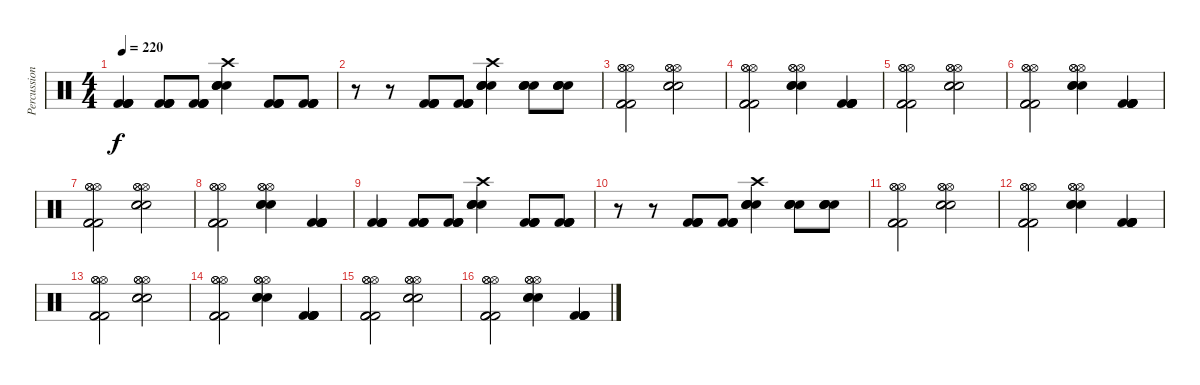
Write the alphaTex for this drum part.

\track ("Percussion" "Percussion") {instrument percussion}
\staff {score}
\articulation defaults
\ts (4 4)
\tempo 220
\clef neutral
\ks c
("Kick (hit) 2" "Kick (hit) 2" "Kick (hit) 2" "Kick (hit) 2").4{dy f} ("Kick (hit) 2" "Kick (hit) 2" "Kick (hit) 2" "Kick (hit) 2").8 ("Kick (hit) 2" "Kick (hit) 2" "Kick (hit) 2" "Kick (hit) 2").8 ("Crash high (hit)" "Snare (hit) 2" "Snare (hit) 2" "Snare (hit) 2" "Snare (hit) 2").4 ("Kick (hit) 2" "Kick (hit) 2" "Kick (hit) 2" "Kick (hit) 2").8 ("Kick (hit) 2" "Kick (hit) 2" "Kick (hit) 2" "Kick (hit) 2").8 |
r.8 r.8 ("Kick (hit) 2" "Kick (hit) 2" "Kick (hit) 2" "Kick (hit) 2").8 ("Kick (hit) 2" "Kick (hit) 2" "Kick (hit) 2" "Kick (hit) 2").8 ("Crash high (hit)" "Snare (hit) 2" "Snare (hit) 2" "Snare (hit) 2" "Snare (hit) 2").4 ("Snare (hit) 2" "Snare (hit) 2" "Snare (hit) 2" "Snare (hit) 2").8 ("Snare (hit) 2" "Snare (hit) 2" "Snare (hit) 2" "Snare (hit) 2").8 |
("Hi-Hat (open)" "Hi-Hat (open)" "Hi-Hat (open)" "Kick (hit) 2" "Kick (hit) 2" "Kick (hit) 2").2 ("Hi-Hat (open)" "Hi-Hat (open)" "Hi-Hat (open)" "Snare (hit) 2" "Snare (hit) 2" "Snare (hit) 2").2 |
("Hi-Hat (open)" "Hi-Hat (open)" "Hi-Hat (open)" "Kick (hit) 2" "Kick (hit) 2" "Kick (hit) 2").2 ("Hi-Hat (open)" "Hi-Hat (open)" "Hi-Hat (open)" "Snare (hit) 2" "Snare (hit) 2" "Snare (hit) 2").4 ("Kick (hit) 2" "Kick (hit) 2" "Kick (hit) 2" "Kick (hit) 2" "Kick (hit) 2").4 |
("Hi-Hat (open)" "Hi-Hat (open)" "Hi-Hat (open)" "Kick (hit) 2" "Kick (hit) 2" "Kick (hit) 2").2 ("Hi-Hat (open)" "Hi-Hat (open)" "Hi-Hat (open)" "Snare (hit) 2" "Snare (hit) 2" "Snare (hit) 2").2 |
("Hi-Hat (open)" "Hi-Hat (open)" "Hi-Hat (open)" "Kick (hit) 2" "Kick (hit) 2" "Kick (hit) 2").2 ("Hi-Hat (open)" "Hi-Hat (open)" "Hi-Hat (open)" "Snare (hit) 2" "Snare (hit) 2" "Snare (hit) 2").4 ("Kick (hit) 2" "Kick (hit) 2" "Kick (hit) 2" "Kick (hit) 2" "Kick (hit) 2").4 |
("Hi-Hat (open)" "Hi-Hat (open)" "Hi-Hat (open)" "Kick (hit) 2" "Kick (hit) 2" "Kick (hit) 2").2 ("Hi-Hat (open)" "Hi-Hat (open)" "Hi-Hat (open)" "Snare (hit) 2" "Snare (hit) 2" "Snare (hit) 2").2 |
("Hi-Hat (open)" "Hi-Hat (open)" "Hi-Hat (open)" "Kick (hit) 2" "Kick (hit) 2" "Kick (hit) 2").2 ("Hi-Hat (open)" "Hi-Hat (open)" "Hi-Hat (open)" "Snare (hit) 2" "Snare (hit) 2" "Snare (hit) 2").4 ("Kick (hit) 2" "Kick (hit) 2" "Kick (hit) 2" "Kick (hit) 2" "Kick (hit) 2").4 |
("Kick (hit) 2" "Kick (hit) 2" "Kick (hit) 2" "Kick (hit) 2").4 ("Kick (hit) 2" "Kick (hit) 2" "Kick (hit) 2" "Kick (hit) 2").8 ("Kick (hit) 2" "Kick (hit) 2" "Kick (hit) 2" "Kick (hit) 2").8 ("Crash high (hit)" "Snare (hit) 2" "Snare (hit) 2" "Snare (hit) 2" "Snare (hit) 2").4 ("Kick (hit) 2" "Kick (hit) 2" "Kick (hit) 2" "Kick (hit) 2").8 ("Kick (hit) 2" "Kick (hit) 2" "Kick (hit) 2" "Kick (hit) 2").8 |
r.8 r.8 ("Kick (hit) 2" "Kick (hit) 2" "Kick (hit) 2" "Kick (hit) 2").8 ("Kick (hit) 2" "Kick (hit) 2" "Kick (hit) 2" "Kick (hit) 2").8 ("Crash high (hit)" "Snare (hit) 2" "Snare (hit) 2" "Snare (hit) 2" "Snare (hit) 2").4 ("Snare (hit) 2" "Snare (hit) 2" "Snare (hit) 2" "Snare (hit) 2").8 ("Snare (hit) 2" "Snare (hit) 2" "Snare (hit) 2" "Snare (hit) 2").8 |
("Hi-Hat (open)" "Hi-Hat (open)" "Hi-Hat (open)" "Kick (hit) 2" "Kick (hit) 2" "Kick (hit) 2").2 ("Hi-Hat (open)" "Hi-Hat (open)" "Hi-Hat (open)" "Snare (hit) 2" "Snare (hit) 2" "Snare (hit) 2").2 |
("Hi-Hat (open)" "Hi-Hat (open)" "Hi-Hat (open)" "Kick (hit) 2" "Kick (hit) 2" "Kick (hit) 2").2 ("Hi-Hat (open)" "Hi-Hat (open)" "Hi-Hat (open)" "Snare (hit) 2" "Snare (hit) 2" "Snare (hit) 2").4 ("Kick (hit) 2" "Kick (hit) 2" "Kick (hit) 2" "Kick (hit) 2" "Kick (hit) 2").4 |
("Hi-Hat (open)" "Hi-Hat (open)" "Hi-Hat (open)" "Kick (hit) 2" "Kick (hit) 2" "Kick (hit) 2").2 ("Hi-Hat (open)" "Hi-Hat (open)" "Hi-Hat (open)" "Snare (hit) 2" "Snare (hit) 2" "Snare (hit) 2").2 |
("Hi-Hat (open)" "Hi-Hat (open)" "Hi-Hat (open)" "Kick (hit) 2" "Kick (hit) 2" "Kick (hit) 2").2 ("Hi-Hat (open)" "Hi-Hat (open)" "Hi-Hat (open)" "Snare (hit) 2" "Snare (hit) 2" "Snare (hit) 2").4 ("Kick (hit) 2" "Kick (hit) 2" "Kick (hit) 2" "Kick (hit) 2" "Kick (hit) 2").4 |
("Hi-Hat (open)" "Hi-Hat (open)" "Hi-Hat (open)" "Kick (hit) 2" "Kick (hit) 2" "Kick (hit) 2").2 ("Hi-Hat (open)" "Hi-Hat (open)" "Hi-Hat (open)" "Snare (hit) 2" "Snare (hit) 2" "Snare (hit) 2").2 |
("Hi-Hat (open)" "Hi-Hat (open)" "Hi-Hat (open)" "Kick (hit) 2" "Kick (hit) 2" "Kick (hit) 2").2 ("Hi-Hat (open)" "Hi-Hat (open)" "Hi-Hat (open)" "Snare (hit) 2" "Snare (hit) 2" "Snare (hit) 2").4 ("Kick (hit) 2" "Kick (hit) 2" "Kick (hit) 2" "Kick (hit) 2" "Kick (hit) 2").4
